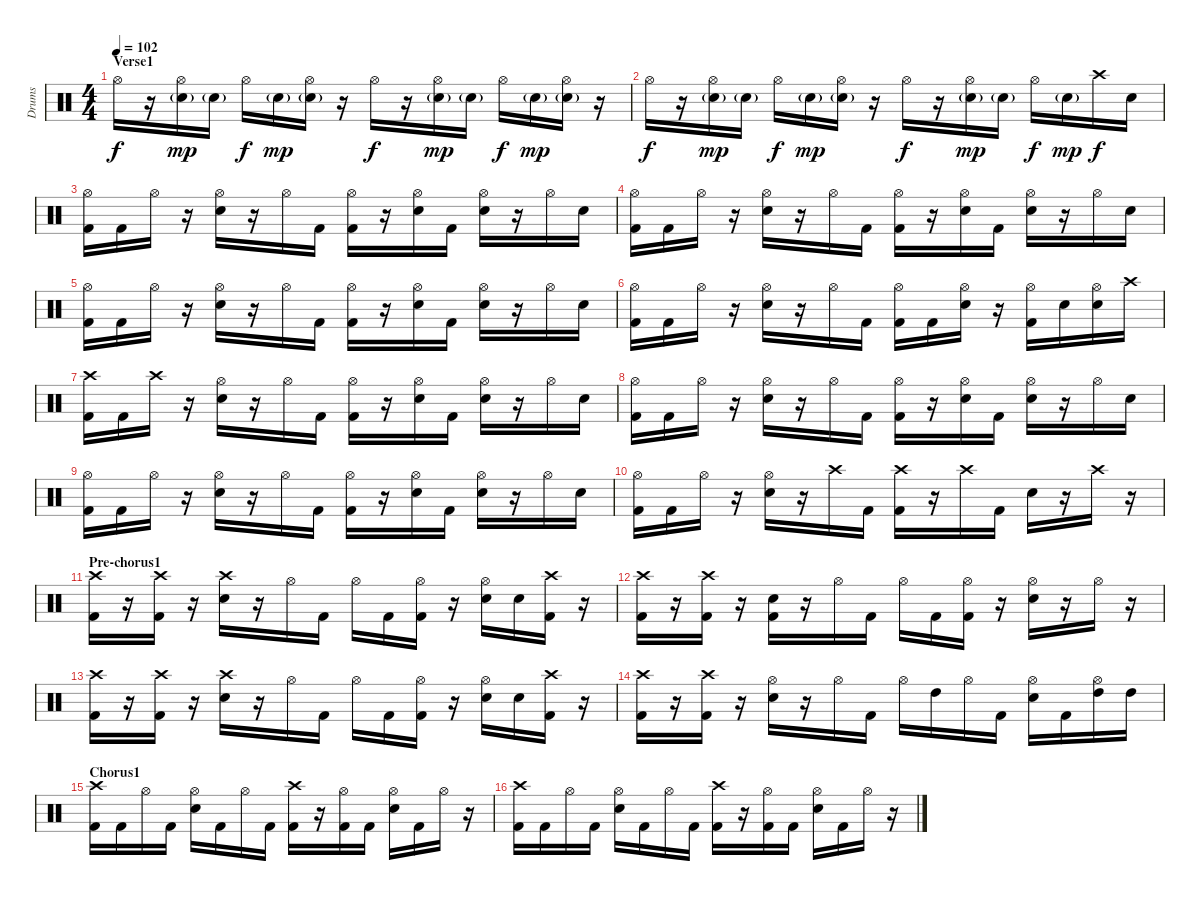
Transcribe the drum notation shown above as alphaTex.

\track ("Drums" "Drums") {instrument percussion}
\staff {score}
\articulation defaults
\ts (4 4)
\section ("" "Verse1")
\tempo 102
\clef neutral
\ks c "Hi-Hat (open)".16{dy f}
r.16 ("Hi-Hat (open)" "Snare (hit) 2"{g}).16{dy mp} "Snare (hit) 2"{g}.16 "Hi-Hat (open)".16{dy f} "Snare (hit) 2"{g}.16{dy mp} ("Hi-Hat (open)" "Snare (hit) 2"{g}).16 r.16 "Hi-Hat (open)".16{dy f} r.16 ("Hi-Hat (open)" "Snare (hit) 2"{g}).16{dy mp} "Snare (hit) 2"{g}.16 "Hi-Hat (open)".16{dy f} "Snare (hit) 2"{g}.16{dy mp} ("Hi-Hat (open)" "Snare (hit) 2"{g}).16 r.16 |
"Hi-Hat (open)".16{dy f} r.16 ("Hi-Hat (open)" "Snare (hit) 2"{g}).16{dy mp} "Snare (hit) 2"{g}.16 "Hi-Hat (open)".16{dy f} "Snare (hit) 2"{g}.16{dy mp} ("Hi-Hat (open)" "Snare (hit) 2"{g}).16 r.16 "Hi-Hat (open)".16{dy f} r.16 ("Hi-Hat (open)" "Snare (hit) 2"{g}).16{dy mp} "Snare (hit) 2"{g}.16 "Hi-Hat (open)".16{dy f} "Snare (hit) 2"{g}.16{dy mp} "Crash high (hit)".16{dy f} "Snare (hit) 2".16 |
("Hi-Hat (open)" "Kick (hit) 2").16 "Kick (hit) 2".16 "Hi-Hat (open)".16 r.16 ("Hi-Hat (open)" "Snare (hit) 2").16 r.16 "Hi-Hat (open)".16 "Kick (hit) 2".16 ("Hi-Hat (open)" "Kick (hit) 2").16 r.16 ("Hi-Hat (open)" "Snare (hit) 2").16 "Kick (hit) 2".16 ("Hi-Hat (open)" "Snare (hit) 2").16 r.16 "Hi-Hat (open)".16 "Snare (hit) 2".16 |
("Hi-Hat (open)" "Kick (hit) 2").16 "Kick (hit) 2".16 "Hi-Hat (open)".16 r.16 ("Hi-Hat (open)" "Snare (hit) 2").16 r.16 "Hi-Hat (open)".16 "Kick (hit) 2".16 ("Hi-Hat (open)" "Kick (hit) 2").16 r.16 ("Hi-Hat (open)" "Snare (hit) 2").16 "Kick (hit) 2".16 ("Hi-Hat (open)" "Snare (hit) 2").16 r.16 "Hi-Hat (open)".16 "Snare (hit) 2".16 |
("Hi-Hat (open)" "Kick (hit) 2").16 "Kick (hit) 2".16 "Hi-Hat (open)".16 r.16 ("Hi-Hat (open)" "Snare (hit) 2").16 r.16 "Hi-Hat (open)".16 "Kick (hit) 2".16 ("Hi-Hat (open)" "Kick (hit) 2").16 r.16 ("Hi-Hat (open)" "Snare (hit) 2").16 "Kick (hit) 2".16 ("Hi-Hat (open)" "Snare (hit) 2").16 r.16 "Hi-Hat (open)".16 "Snare (hit) 2".16 |
("Hi-Hat (open)" "Kick (hit) 2").16 "Kick (hit) 2".16 "Hi-Hat (open)".16 r.16 ("Hi-Hat (open)" "Snare (hit) 2").16 r.16 "Hi-Hat (open)".16 "Kick (hit) 2".16 ("Hi-Hat (open)" "Kick (hit) 2").16 "Kick (hit) 2".16 ("Hi-Hat (open)" "Snare (hit) 2").16 r.16 ("Hi-Hat (open)" "Kick (hit) 2").16 "Snare (hit) 2".16 ("Hi-Hat (open)" "Snare (hit) 2").16 "Crash high (hit)".16 |
("Crash high (hit)" "Kick (hit) 2").16 "Kick (hit) 2".16 "Crash high (hit)".16 r.16 ("Hi-Hat (open)" "Snare (hit) 2").16 r.16 "Hi-Hat (open)".16 "Kick (hit) 2".16 ("Hi-Hat (open)" "Kick (hit) 2").16 r.16 ("Hi-Hat (open)" "Snare (hit) 2").16 "Kick (hit) 2".16 ("Hi-Hat (open)" "Snare (hit) 2").16 r.16 "Hi-Hat (open)".16 "Snare (hit) 2".16 |
("Hi-Hat (open)" "Kick (hit) 2").16 "Kick (hit) 2".16 "Hi-Hat (open)".16 r.16 ("Hi-Hat (open)" "Snare (hit) 2").16 r.16 "Hi-Hat (open)".16 "Kick (hit) 2".16 ("Hi-Hat (open)" "Kick (hit) 2").16 r.16 ("Hi-Hat (open)" "Snare (hit) 2").16 "Kick (hit) 2".16 ("Hi-Hat (open)" "Snare (hit) 2").16 r.16 "Hi-Hat (open)".16 "Snare (hit) 2".16 |
("Hi-Hat (open)" "Kick (hit) 2").16 "Kick (hit) 2".16 "Hi-Hat (open)".16 r.16 ("Hi-Hat (open)" "Snare (hit) 2").16 r.16 "Hi-Hat (open)".16 "Kick (hit) 2".16 ("Hi-Hat (open)" "Kick (hit) 2").16 r.16 ("Hi-Hat (open)" "Snare (hit) 2").16 "Kick (hit) 2".16 ("Hi-Hat (open)" "Snare (hit) 2").16 r.16 "Hi-Hat (open)".16 "Snare (hit) 2".16 |
("Hi-Hat (open)" "Kick (hit) 2").16 "Kick (hit) 2".16 "Hi-Hat (open)".16 r.16 ("Hi-Hat (open)" "Snare (hit) 2").16 r.16 "Crash high (hit)".16 "Kick (hit) 2".16 ("Crash high (hit)" "Kick (hit) 2").16 r.16 "Crash high (hit)".16 "Kick (hit) 2".16 "Snare (hit) 2".16 r.16 "Crash high (hit)".16 r.16 |
\section ("" "Pre-chorus1")
("Crash high (hit)" "Kick (hit) 2").16 r.16 ("Crash high (hit)" "Kick (hit) 2").16 r.16 ("Crash high (hit)" "Snare (hit) 2").16 r.16 "Hi-Hat (open)".16 "Kick (hit) 2".16 "Hi-Hat (open)".16 "Kick (hit) 2".16 ("Hi-Hat (open)" "Kick (hit) 2").16 r.16 ("Hi-Hat (open)" "Snare (hit) 2").16 "Snare (hit) 2".16 ("Crash high (hit)" "Kick (hit) 2").16 r.16 |
("Crash high (hit)" "Kick (hit) 2").16 r.16 ("Crash high (hit)" "Kick (hit) 2").16 r.16 ("Kick (hit) 2" "Snare (hit) 2").16 r.16 "Hi-Hat (open)".16 "Kick (hit) 2".16 "Hi-Hat (open)".16 "Kick (hit) 2".16 ("Hi-Hat (open)" "Kick (hit) 2").16 r.16 ("Hi-Hat (open)" "Snare (hit) 2").16 r.16 "Hi-Hat (open)".16 r.16 |
("Crash high (hit)" "Kick (hit) 2").16 r.16 ("Crash high (hit)" "Kick (hit) 2").16 r.16 ("Crash high (hit)" "Snare (hit) 2").16 r.16 "Hi-Hat (open)".16 "Kick (hit) 2".16 "Hi-Hat (open)".16 "Kick (hit) 2".16 ("Hi-Hat (open)" "Kick (hit) 2").16 r.16 ("Hi-Hat (open)" "Snare (hit) 2").16 "Snare (hit) 2".16 ("Crash high (hit)" "Kick (hit) 2").16 r.16 |
("Crash high (hit)" "Kick (hit) 2").16 r.16 ("Crash high (hit)" "Kick (hit) 2").16 r.16 ("Hi-Hat (open)" "Snare (hit) 2").16 r.16 "Hi-Hat (open)".16 "Kick (hit) 2".16 "Hi-Hat (open)".16 "High Tom (hit)".16 "Hi-Hat (open)".16 "Kick (hit) 2".16 ("Hi-Hat (open)" "Snare (hit) 2").16 "Kick (hit) 2".16 ("High Tom (hit)" "Hi-Hat (open)").16 "High Tom (hit)".16 |
\section ("" "Chorus1")
("Crash high (hit)" "Kick (hit) 2").16 "Kick (hit) 2".16 "Hi-Hat (open)".16 "Kick (hit) 2".16 ("Hi-Hat (open)" "Snare (hit) 2").16 "Kick (hit) 2".16 "Hi-Hat (open)".16 "Kick (hit) 2".16 ("Crash high (hit)" "Kick (hit) 2").16 r.16 ("Hi-Hat (open)" "Kick (hit) 2").16 "Kick (hit) 2".16 ("Hi-Hat (open)" "Snare (hit) 2").16 "Kick (hit) 2".16 "Hi-Hat (open)".16 r.16 |
("Crash high (hit)" "Kick (hit) 2").16 "Kick (hit) 2".16 "Hi-Hat (open)".16 "Kick (hit) 2".16 ("Hi-Hat (open)" "Snare (hit) 2").16 "Kick (hit) 2".16 "Hi-Hat (open)".16 "Kick (hit) 2".16 ("Crash high (hit)" "Kick (hit) 2").16 r.16 ("Hi-Hat (open)" "Kick (hit) 2").16 "Kick (hit) 2".16 ("Hi-Hat (open)" "Snare (hit) 2").16 "Kick (hit) 2".16 "Hi-Hat (open)".16 r.16
